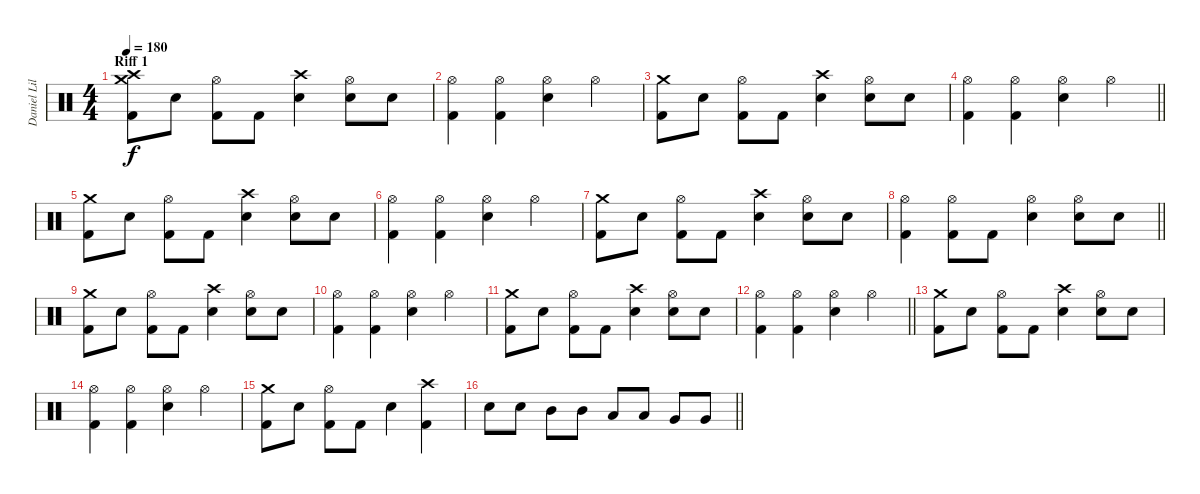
\track ("Daniel Liljekvist" "Daniel Lil") {instrument percussion}
\staff {score}
\articulation defaults
\ts (4 4)
\section ("" "Riff 1")
\tempo 180
\clef neutral
\ks c
("Crash medium (hit)" "Crash high (hit)" "Kick (hit) 2").8{dy f} "Electric Snare (hit)".8 ("Hi-Hat (open)" "Kick (hit) 2").8 "Kick (hit) 2".8 ("Crash high (hit)" "Electric Snare (hit)").4 ("Hi-Hat (open)" "Electric Snare (hit)").8 "Electric Snare (hit)".8 |
("Hi-Hat (open)" "Kick (hit) 2").4 ("Hi-Hat (open)" "Kick (hit) 2").4 ("Hi-Hat (open)" "Electric Snare (hit)").4 "Hi-Hat (open)".4 |
("Crash medium (hit)" "Kick (hit) 2").8 "Electric Snare (hit)".8 ("Hi-Hat (open)" "Kick (hit) 2").8 "Kick (hit) 2".8 ("Crash high (hit)" "Electric Snare (hit)").4 ("Hi-Hat (open)" "Electric Snare (hit)").8 "Electric Snare (hit)".8 |
\barLineRight lightlight
("Hi-Hat (open)" "Kick (hit) 2").4 ("Hi-Hat (open)" "Kick (hit) 2").4 ("Hi-Hat (open)" "Electric Snare (hit)").4 "Hi-Hat (open)".4 |
("Crash medium (hit)" "Kick (hit) 2").8 "Electric Snare (hit)".8 ("Hi-Hat (open)" "Kick (hit) 2").8 "Kick (hit) 2".8 ("Crash high (hit)" "Electric Snare (hit)").4 ("Hi-Hat (open)" "Electric Snare (hit)").8 "Electric Snare (hit)".8 |
("Hi-Hat (open)" "Kick (hit) 2").4 ("Hi-Hat (open)" "Kick (hit) 2").4 ("Hi-Hat (open)" "Electric Snare (hit)").4 "Hi-Hat (open)".4 |
("Crash medium (hit)" "Kick (hit) 2").8 "Electric Snare (hit)".8 ("Hi-Hat (open)" "Kick (hit) 2").8 "Kick (hit) 2".8 ("Crash high (hit)" "Electric Snare (hit)").4 ("Hi-Hat (open)" "Electric Snare (hit)").8 "Electric Snare (hit)".8 |
\barLineRight lightlight
("Hi-Hat (open)" "Kick (hit) 2").4 ("Hi-Hat (open)" "Kick (hit) 2").8 "Kick (hit) 2".8 ("Hi-Hat (open)" "Electric Snare (hit)").4 ("Hi-Hat (open)" "Electric Snare (hit)").8 "Electric Snare (hit)".8 |
("Crash medium (hit)" "Kick (hit) 2").8 "Electric Snare (hit)".8 ("Hi-Hat (open)" "Kick (hit) 2").8 "Kick (hit) 2".8 ("Crash high (hit)" "Electric Snare (hit)").4 ("Hi-Hat (open)" "Electric Snare (hit)").8 "Electric Snare (hit)".8 |
("Hi-Hat (open)" "Kick (hit) 2").4 ("Hi-Hat (open)" "Kick (hit) 2").4 ("Hi-Hat (open)" "Electric Snare (hit)").4 "Hi-Hat (open)".4 |
("Crash medium (hit)" "Kick (hit) 2").8 "Electric Snare (hit)".8 ("Hi-Hat (open)" "Kick (hit) 2").8 "Kick (hit) 2".8 ("Crash high (hit)" "Electric Snare (hit)").4 ("Hi-Hat (open)" "Electric Snare (hit)").8 "Electric Snare (hit)".8 |
\barLineRight lightlight
("Hi-Hat (open)" "Kick (hit) 2").4 ("Hi-Hat (open)" "Kick (hit) 2").4 ("Hi-Hat (open)" "Electric Snare (hit)").4 "Hi-Hat (open)".4 |
("Crash medium (hit)" "Kick (hit) 2").8 "Electric Snare (hit)".8 ("Hi-Hat (open)" "Kick (hit) 2").8 "Kick (hit) 2".8 ("Crash high (hit)" "Electric Snare (hit)").4 ("Hi-Hat (open)" "Electric Snare (hit)").8 "Electric Snare (hit)".8 |
("Hi-Hat (open)" "Kick (hit) 2").4 ("Hi-Hat (open)" "Kick (hit) 2").4 ("Hi-Hat (open)" "Electric Snare (hit)").4 "Hi-Hat (open)".4 |
("Crash medium (hit)" "Kick (hit) 2").8 "Electric Snare (hit)".8 ("Hi-Hat (open)" "Kick (hit) 2").8 "Kick (hit) 2".8 "Electric Snare (hit)".4 ("Crash high (hit)" "Kick (hit) 2").4 |
\barLineRight lightlight "Electric Snare (hit)".8 "Electric Snare (hit)".8 "Mid Tom (hit)".8 "Mid Tom (hit)".8 "Low Tom (hit)".8 "Low Tom (hit)".8 "Very Low Tom (hit)".8 "Very Low Tom (hit)".8
